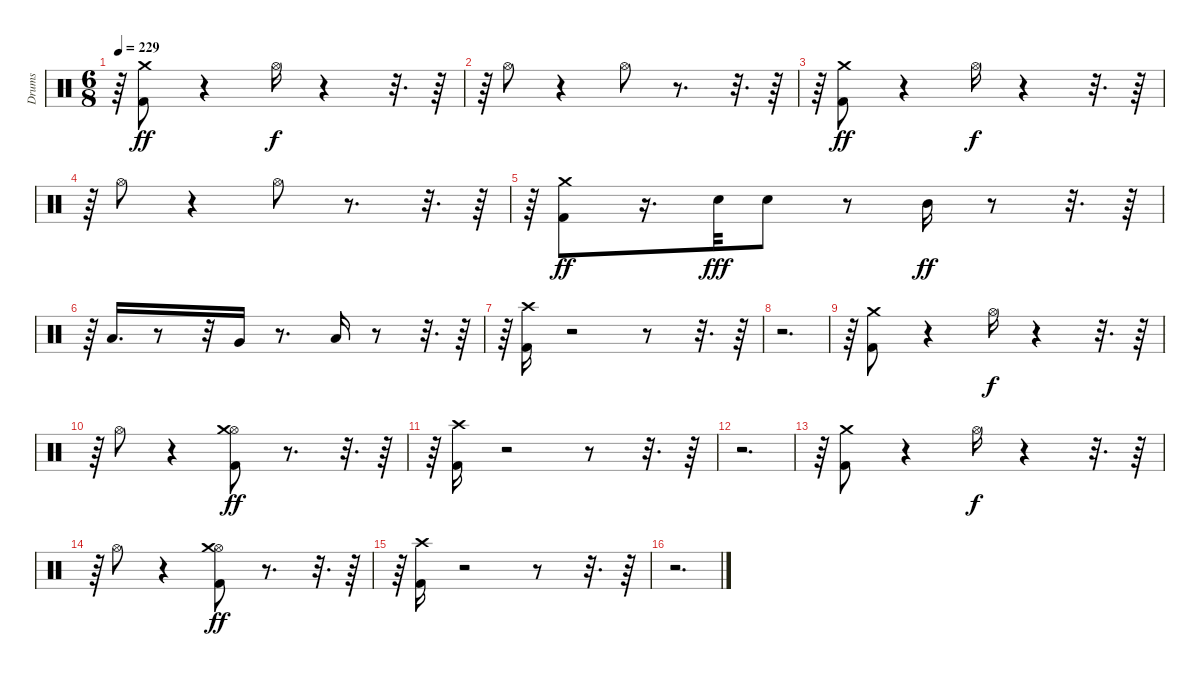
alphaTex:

\track ("Drums" "Drums") {instrument percussion}
\staff {score}
\articulation defaults
\ts (6 8)
\tempo 229
\clef neutral
\ks c
r.64{dy ff} ("Kick (hit) 2" "Crash medium (hit)").8{volume 16} r.4 "Hi-Hat (open)".16{dy f} r.4 r.32{d} r.64 |
r.64 "Hi-Hat (open)".8 r.4 "Hi-Hat (open)".8 r.8{d} r.32{d} r.64 |
r.64 ("Kick (hit) 2" "Crash medium (hit)").8{dy ff} r.4 "Hi-Hat (open)".16{dy f} r.4 r.32{d} r.64 |
r.64 "Hi-Hat (open)".8 r.4 "Hi-Hat (open)".8 r.8{d} r.32{d} r.64 |
r.64 ("Kick (hit) 2" "Crash medium (hit)").8{dy ff} r.16{d} "Snare (hit) 2".32{dy fff} "Snare (hit) 2".8 r.8 "Mid Tom (hit)".16{dy ff} r.8 r.32{d} r.64 |
r.64 "Low Tom (hit)".16{d} r.8 r.32 "Very Low Tom (hit)".16 r.8{d} "Low Floor Tom (hit)".16 r.8 r.32{d} r.64 |
r.64 ("Kick (hit) 2" "Crash high (hit)").16 r.2 r.8 r.32{d} r.64 |
r.2{d} |
r.64 ("Kick (hit) 2" "Crash medium (hit)").8{volume 13} r.4 "Hi-Hat (open)".16{dy f volume 16} r.4 r.32{d} r.64 |
r.64 "Hi-Hat (open)".8 r.4 ("Kick (hit) 2" "Hi-Hat (open)" "Crash medium (hit)").8{dy ff} r.8{d} r.32{d} r.64 |
r.64 ("Kick (hit) 2" "Crash high (hit)").16 r.2 r.8 r.32{d} r.64 |
r.2{d} |
r.64 ("Kick (hit) 2" "Crash medium (hit)").8{volume 16} r.4 "Hi-Hat (open)".16{dy f} r.4 r.32{d} r.64 |
r.64 "Hi-Hat (open)".8 r.4 ("Kick (hit) 2" "Hi-Hat (open)" "Crash medium (hit)").8{dy ff} r.8{d} r.32{d} r.64 |
r.64 ("Kick (hit) 2" "Crash high (hit)").16 r.2 r.8 r.32{d} r.64 |
r.2{d}
